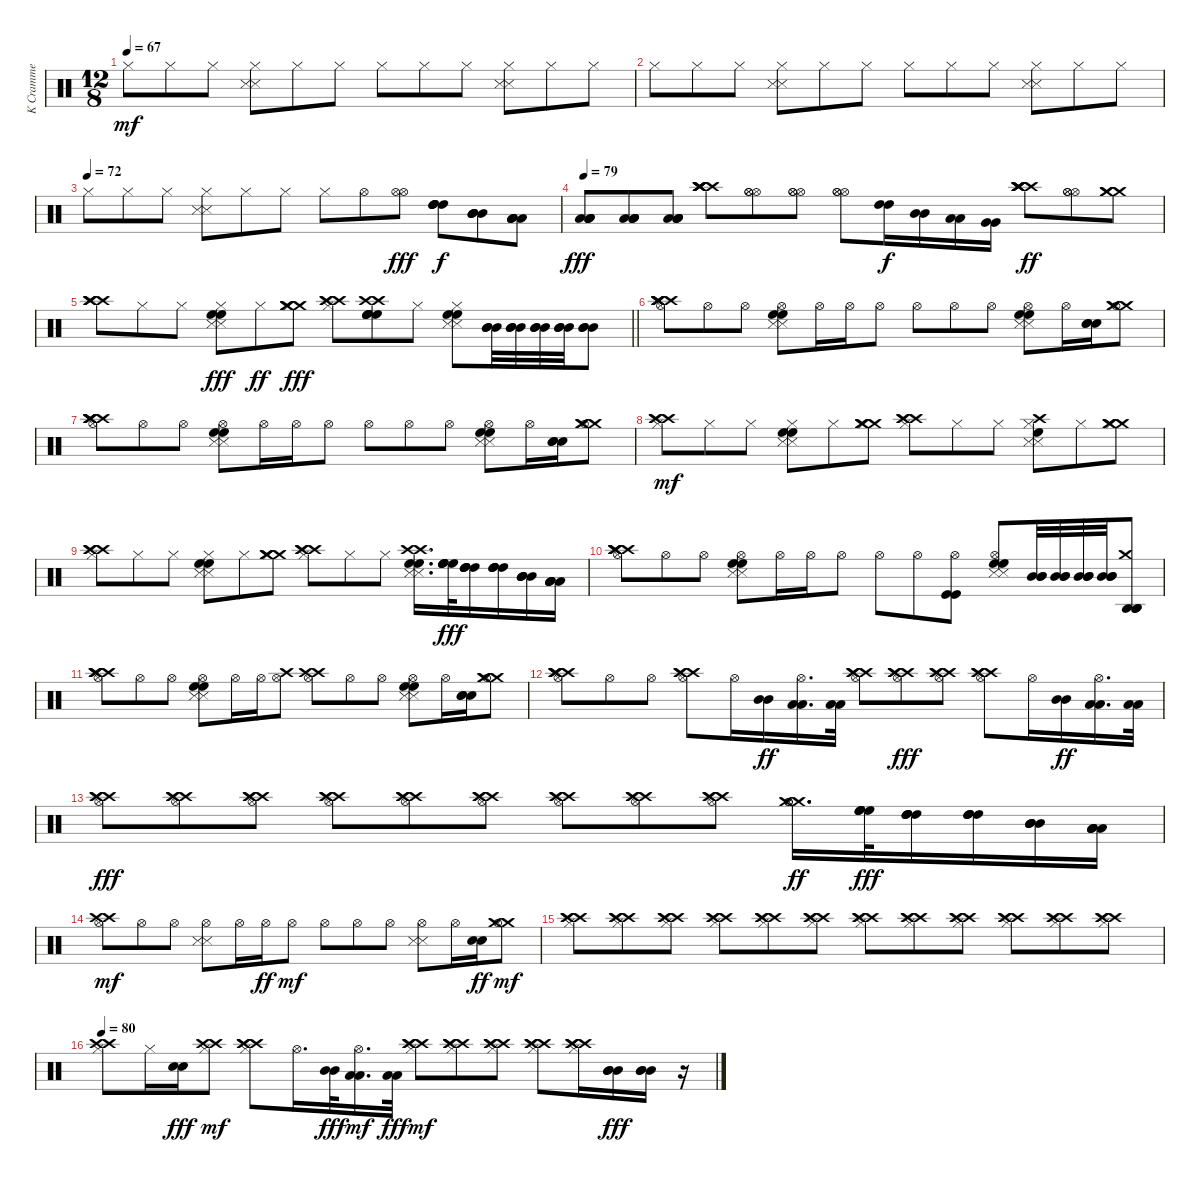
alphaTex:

\track ("K Cramme" "K Cramme") {instrument percussion}
\staff {score}
\articulation defaults
\ts (12 8)
\tempo 67
\clef neutral
\ks c "Hi-Hat (closed)".8{dy mf} "Hi-Hat (closed)".8 "Hi-Hat (closed)".8
("Snare (side stick) 3" "Snare (side stick) 3" "Hi-Hat (closed)").8 "Hi-Hat (closed)".8 "Hi-Hat (closed)".8 "Hi-Hat (closed)".8 "Hi-Hat (closed)".8 "Hi-Hat (closed)".8 ("Snare (side stick) 3" "Snare (side stick) 3" "Hi-Hat (closed)").8 "Hi-Hat (closed)".8 "Hi-Hat (closed)".8 |
"Hi-Hat (closed)".8 "Hi-Hat (closed)".8 "Hi-Hat (closed)".8 ("Snare (side stick) 3" "Snare (side stick) 3" "Hi-Hat (closed)").8 "Hi-Hat (closed)".8 "Hi-Hat (closed)".8 "Hi-Hat (closed)".8 "Hi-Hat (closed)".8 "Hi-Hat (closed)".8 ("Snare (side stick) 3" "Snare (side stick) 3" "Hi-Hat (closed)").8 "Hi-Hat (closed)".8 "Hi-Hat (closed)".8 |
\tempo (72)
"Hi-Hat (closed)".8 "Hi-Hat (closed)".8 "Hi-Hat (closed)".8 ("Snare (side stick) 3" "Snare (side stick) 3" "Hi-Hat (closed)").8 "Hi-Hat (closed)".8 "Hi-Hat (closed)".8 "Hi-Hat (closed)".8 "Hi-Hat (open)".8 ("Hi-Hat (open)" "Hi-Hat (open)").8{dy fff} ("High Tom (hit)" "High Tom (hit)" "High Tom (hit)" "High Tom (hit)").8{dy f} ("Mid Tom (hit)" "Mid Tom (hit)" "Mid Tom (hit)" "Mid Tom (hit)").8 ("Low Tom (hit)" "Low Tom (hit)" "Low Tom (hit)" "Low Tom (hit)").8 |
\tempo 79
("Low Floor Tom (hit)" "Low Floor Tom (hit)" "Low Floor Tom (hit)" "Low Floor Tom (hit)").8{dy fff volume 16} ("Low Floor Tom (hit)" "Low Floor Tom (hit)" "Low Floor Tom (hit)" "Low Floor Tom (hit)").8 ("Low Floor Tom (hit)" "Low Floor Tom (hit)" "Low Floor Tom (hit)" "Low Floor Tom (hit)").8 ("Crash high (hit)" "Crash high (hit)" "Crash high (hit)" "Crash high (hit)" "Crash high (hit)" "Crash high (hit)").8 ("Hi-Hat (open)" "Hi-Hat (open)" "Hi-Hat (open)").8 ("Hi-Hat (open)" "Hi-Hat (open)" "Hi-Hat (open)").8 ("Hi-Hat (open)" "Hi-Hat (open)" "Hi-Hat (open)").8 ("High Tom (hit)" "High Tom (hit)").16{dy f} ("Mid Tom (hit)" "Mid Tom (hit)").16 ("Low Tom (hit)" "Low Tom (hit)").16 ("Very Low Tom (hit)" "Very Low Tom (hit)").16 ("Crash high (hit)" "Crash high (hit)" "Crash high (hit)" "Crash high (hit)" "Crash high (hit)" "Crash high (hit)").8{dy ff} ("Hi-Hat (open)" "Hi-Hat (open)" "Hi-Hat (open)").8 ("Crash medium (hit)" "Crash medium (hit)" "Crash medium (hit)").8 |
\barLineRight lightlight
("Crash high (hit)" "Crash high (hit)" "Crash high (hit)" "Crash high (hit)").8 "Hi-Hat (closed)".8 "Hi-Hat (closed)".8 ("High Floor Tom (hit)" "High Floor Tom (hit)" "Snare (side stick) 3" "Snare (side stick) 3" "Hi-Hat (closed)").8{dy fff} "Hi-Hat (closed)".8{dy ff} ("Crash medium (hit)" "Crash medium (hit)" "Crash medium (hit)" "Hi-Hat (closed)").8{dy fff} ("Crash high (hit)" "Crash high (hit)" "Crash high (hit)" "Hi-Hat (closed)").8 ("High Floor Tom (hit)" "High Floor Tom (hit)" "Crash high (hit)" "Crash high (hit)" "High Floor Tom (hit)" "High Floor Tom (hit)").8 "Hi-Hat (closed)".8 ("High Floor Tom (hit)" "High Floor Tom (hit)" "Snare (side stick) 3" "Snare (side stick) 3" "Hi-Hat (closed)").8 ("Mid Tom (hit)" "Mid Tom (hit)" "Mid Tom (hit)").32 ("Mid Tom (hit)" "Mid Tom (hit)" "Mid Tom (hit)").32 ("Mid Tom (hit)" "Mid Tom (hit)" "Mid Tom (hit)").32 ("Mid Tom (hit)" "Mid Tom (hit)" "Mid Tom (hit)").32 ("Mid Tom (hit)" "Mid Tom (hit)" "Mid Tom (hit)").8 |
("Crash high (hit)" "Crash high (hit)" "Crash high (hit)" "Crash high (hit)" "Crash high (hit)" "Hi-Hat (open)").8 "Hi-Hat (open)".8 "Hi-Hat (open)".8 ("High Floor Tom (hit)" "High Floor Tom (hit)" "Snare (side stick) 3" "Snare (side stick) 3" "Hi-Hat (open)").8 "Hi-Hat (open)".16 "Hi-Hat (open)".16 "Hi-Hat (open)".8 "Hi-Hat (open)".8 "Hi-Hat (open)".8 "Hi-Hat (open)".8 ("High Floor Tom (hit)" "High Floor Tom (hit)" "Snare (side stick) 3" "Snare (side stick) 3" "Hi-Hat (open)").8 "Hi-Hat (open)".16 ("Snare (hit) 2" "Snare (hit) 2" "Snare (hit) 2").16 ("Crash medium (hit)" "Crash medium (hit)" "Crash medium (hit)" "Hi-Hat (open)").8 |
("Crash high (hit)" "Crash high (hit)" "Crash high (hit)" "Crash high (hit)" "Crash high (hit)" "Hi-Hat (open)").8 "Hi-Hat (open)".8 "Hi-Hat (open)".8 ("High Floor Tom (hit)" "High Floor Tom (hit)" "Snare (side stick) 3" "Snare (side stick) 3" "Hi-Hat (open)").8 "Hi-Hat (open)".16 "Hi-Hat (open)".16 "Hi-Hat (open)".8 "Hi-Hat (open)".8 "Hi-Hat (open)".8 "Hi-Hat (open)".8 ("High Floor Tom (hit)" "High Floor Tom (hit)" "Snare (side stick) 3" "Snare (side stick) 3" "Hi-Hat (open)").8 "Hi-Hat (open)".16 ("Snare (hit) 2" "Snare (hit) 2" "Snare (hit) 2").16 ("Crash medium (hit)" "Crash medium (hit)" "Crash medium (hit)" "Hi-Hat (open)").8 |
("Crash high (hit)" "Crash high (hit)" "Crash high (hit)" "Hi-Hat (closed)").8{dy mf} "Hi-Hat (closed)".8 "Hi-Hat (closed)".8 ("High Floor Tom (hit)" "High Floor Tom (hit)" "Snare (side stick) 3" "Snare (side stick) 3" "Hi-Hat (closed)").8 "Hi-Hat (closed)".8 ("Crash medium (hit)" "Crash medium (hit)" "Crash medium (hit)" "Hi-Hat (closed)").8 ("Crash high (hit)" "Crash high (hit)" "Crash high (hit)" "Hi-Hat (closed)").8 "Hi-Hat (closed)".8 "Hi-Hat (closed)".8 ("Snare (side stick) 3" "High Floor Tom (hit)" "Snare (side stick) 3" "Crash high (hit)" "Hi-Hat (closed)").8 "Hi-Hat (closed)".8 ("Crash medium (hit)" "Crash medium (hit)" "Crash medium (hit)" "Hi-Hat (closed)").8 |
("Crash high (hit)" "Crash high (hit)" "Crash high (hit)" "Hi-Hat (closed)").8 "Hi-Hat (closed)".8 "Hi-Hat (closed)".8 ("High Floor Tom (hit)" "High Floor Tom (hit)" "Snare (side stick) 3" "Snare (side stick) 3" "Hi-Hat (closed)").8 "Hi-Hat (closed)".8 ("Crash medium (hit)" "Crash medium (hit)" "Crash medium (hit)" "Hi-Hat (closed)").8 ("Crash high (hit)" "Crash high (hit)" "Crash high (hit)" "Hi-Hat (closed)").8 "Hi-Hat (closed)".8 "Hi-Hat (closed)".8 ("High Floor Tom (hit)" "High Floor Tom (hit)" "Snare (side stick) 3" "Snare (side stick) 3" "Crash high (hit)" "Crash high (hit)").16{d} ("High Floor Tom (hit)" "High Floor Tom (hit)" "High Floor Tom (hit)" "High Floor Tom (hit)").32{dy fff} ("High Tom (hit)" "High Tom (hit)" "High Tom (hit)" "High Tom (hit)").16 ("High Tom (hit)" "High Tom (hit)" "High Tom (hit)" "High Tom (hit)").16 ("Mid Tom (hit)" "Mid Tom (hit)" "Mid Tom (hit)" "Mid Tom (hit)").16 ("Low Tom (hit)" "Low Tom (hit)" "Low Tom (hit)" "Low Tom (hit)").16 |
("Crash high (hit)" "Crash high (hit)" "Crash high (hit)" "Crash high (hit)" "Crash high (hit)" "Hi-Hat (open)").8 "Hi-Hat (open)".8 "Hi-Hat (open)".8 ("High Floor Tom (hit)" "High Floor Tom (hit)" "Snare (side stick) 3" "Snare (side stick) 3" "Hi-Hat (open)").8 "Hi-Hat (open)".16 "Hi-Hat (open)".16 "Hi-Hat (open)".8 "Hi-Hat (open)".8 "Hi-Hat (open)".8 ("Kick (hit)" "Kick (hit)" "Hi-Hat (open)").8 ("High Floor Tom (hit)" "High Floor Tom (hit)" "Snare (side stick) 3" "Snare (side stick) 3" "Hi-Hat (open)").8 ("Mid Tom (hit)" "Mid Tom (hit)" "Mid Tom (hit)").32 ("Mid Tom (hit)" "Mid Tom (hit)" "Mid Tom (hit)").32 ("Mid Tom (hit)" "Mid Tom (hit)" "Mid Tom (hit)").32 ("Mid Tom (hit)" "Mid Tom (hit)" "Mid Tom (hit)").32 ("Crash medium (hit)" "Agogo high (hit)" "Agogo high (hit)" "Agogo high (hit)").8 |
("Crash high (hit)" "Crash high (hit)" "Crash high (hit)" "Crash high (hit)" "Crash high (hit)" "Hi-Hat (open)").8 "Hi-Hat (open)".8 "Hi-Hat (open)".8 ("High Floor Tom (hit)" "High Floor Tom (hit)" "Snare (side stick) 3" "Snare (side stick) 3" "Hi-Hat (open)").8 "Hi-Hat (open)".16 "Hi-Hat (open)".16 ("Crash high (hit)" "Hi-Hat (open)").8 ("Crash high (hit)" "Crash high (hit)" "Hi-Hat (open)").8 "Hi-Hat (open)".8 "Hi-Hat (open)".8 ("High Floor Tom (hit)" "High Floor Tom (hit)" "Snare (side stick) 3" "Snare (side stick) 3" "Hi-Hat (open)").8 "Hi-Hat (open)".16 ("Snare (hit) 2" "Snare (hit) 2" "Snare (hit) 2").16 ("Crash medium (hit)" "Crash medium (hit)" "Crash medium (hit)" "Hi-Hat (open)").8 |
("Crash high (hit)" "Crash high (hit)" "Crash high (hit)" "Crash high (hit)" "Crash high (hit)" "Hi-Hat (open)").8 "Hi-Hat (open)".8 "Hi-Hat (open)".8 ("Crash high (hit)" "Crash high (hit)" "Crash high (hit)" "Hi-Hat (open)").8 "Hi-Hat (open)".16 ("Mid Tom (hit)" "Mid Tom (hit)").16{dy ff} ("Low Tom (hit)" "Low Tom (hit)" "Hi-Hat (open)").16{d} ("Low Tom (hit)" "Low Tom (hit)").32 ("Crash high (hit)" "Crash high (hit)" "Crash high (hit)" "Hi-Hat (open)").8 ("Crash high (hit)" "Crash high (hit)" "Crash high (hit)" "Hi-Hat (open)").8{dy fff} ("Crash high (hit)" "Crash high (hit)" "Crash high (hit)" "Hi-Hat (open)").8 ("Crash high (hit)" "Crash high (hit)" "Crash high (hit)" "Hi-Hat (open)").8 "Hi-Hat (open)".16 ("Mid Tom (hit)" "Mid Tom (hit)").16{dy ff} ("Low Tom (hit)" "Low Tom (hit)" "Hi-Hat (open)").16{d} ("Low Tom (hit)" "Low Tom (hit)").32 |
("Crash high (hit)" "Crash high (hit)" "Crash high (hit)" "Hi-Hat (open)").8{dy fff} ("Crash high (hit)" "Crash high (hit)" "Crash high (hit)" "Hi-Hat (open)").8 ("Crash high (hit)" "Crash high (hit)" "Crash high (hit)" "Hi-Hat (open)").8 ("Crash high (hit)" "Crash high (hit)" "Crash high (hit)" "Hi-Hat (open)").8 ("Crash high (hit)" "Crash high (hit)" "Crash high (hit)" "Hi-Hat (open)").8 ("Crash high (hit)" "Crash high (hit)" "Crash high (hit)" "Hi-Hat (open)").8 ("Crash high (hit)" "Crash high (hit)" "Crash high (hit)" "Hi-Hat (open)").8 ("Crash high (hit)" "Crash high (hit)" "Crash high (hit)" "Hi-Hat (open)").8 ("Crash high (hit)" "Crash high (hit)" "Crash high (hit)" "Hi-Hat (open)").8 ("Crash medium (hit)" "Crash medium (hit)" "Hi-Hat (open)" "Hi-Hat (open)").16{d dy ff} ("High Floor Tom (hit)" "High Floor Tom (hit)" "High Floor Tom (hit)" "High Floor Tom (hit)").32{dy fff} ("High Tom (hit)" "High Tom (hit)" "High Tom (hit)" "High Tom (hit)").16 ("High Tom (hit)" "High Tom (hit)" "High Tom (hit)" "High Tom (hit)").16 ("Mid Tom (hit)" "Mid Tom (hit)" "Mid Tom (hit)" "Mid Tom (hit)").16 ("Low Tom (hit)" "Low Tom (hit)" "Low Tom (hit)" "Low Tom (hit)").16 |
("Crash high (hit)" "Crash high (hit)" "Hi-Hat (open)").8{dy mf} "Hi-Hat (open)".8 "Hi-Hat (open)".8 ("Snare (side stick) 3" "Snare (side stick) 3" "Hi-Hat (open)").8 "Hi-Hat (open)".16 "Hi-Hat (open)".16{dy ff} "Hi-Hat (open)".8{dy mf} "Hi-Hat (open)".8 "Hi-Hat (open)".8 "Hi-Hat (open)".8 ("Snare (side stick) 3" "Snare (side stick) 3" "Hi-Hat (open)").8 "Hi-Hat (open)".16 ("Snare (hit) 2" "Snare (hit) 2").16{dy ff} ("Crash medium (hit)" "Crash medium (hit)" "Hi-Hat (open)").8{dy mf} |
("Crash high (hit)" "Crash high (hit)" "Crash high (hit)" "Hi-Hat (closed)").8 ("Crash high (hit)" "Crash high (hit)" "Crash high (hit)" "Hi-Hat (closed)").8 ("Crash high (hit)" "Crash high (hit)" "Crash high (hit)" "Hi-Hat (closed)").8 ("Crash high (hit)" "Crash high (hit)" "Crash high (hit)" "Hi-Hat (closed)").8 ("Crash high (hit)" "Crash high (hit)" "Crash high (hit)" "Hi-Hat (closed)").8 ("Crash high (hit)" "Crash high (hit)" "Crash high (hit)" "Hi-Hat (closed)").8 ("Crash high (hit)" "Crash high (hit)" "Crash high (hit)" "Hi-Hat (closed)").8 ("Crash high (hit)" "Crash high (hit)" "Crash high (hit)" "Hi-Hat (closed)").8 ("Crash high (hit)" "Crash high (hit)" "Crash high (hit)" "Hi-Hat (closed)").8 ("Crash high (hit)" "Crash high (hit)" "Crash high (hit)" "Hi-Hat (closed)").8 ("Crash high (hit)" "Crash high (hit)" "Crash high (hit)" "Hi-Hat (closed)").8 ("Crash high (hit)" "Crash high (hit)" "Crash high (hit)" "Hi-Hat (closed)").8 |
\tempo 80
("Crash high (hit)" "Crash high (hit)" "Hi-Hat (closed)").8 "Hi-Hat (closed)".16 ("Snare (hit) 2" "Snare (hit) 2").16{dy fff} ("Crash high (hit)" "Crash high (hit)" "Hi-Hat (closed)").8{dy mf} ("Crash high (hit)" "Crash high (hit)" "Crash high (hit)" "Hi-Hat (closed)").8 "Hi-Hat (open)".16{d} ("Mid Tom (hit)" "Mid Tom (hit)").32{dy fff} ("Low Tom (hit)" "Low Tom (hit)" "Hi-Hat (open)").16{d dy mf} ("Low Tom (hit)" "Low Tom (hit)").32{dy fff} ("Crash high (hit)" "Crash high (hit)" "Crash high (hit)" "Hi-Hat (closed)").8{dy mf} ("Crash high (hit)" "Crash high (hit)" "Crash high (hit)" "Hi-Hat (closed)").8 ("Crash high (hit)" "Crash high (hit)" "Crash high (hit)" "Hi-Hat (closed)").8 ("Crash high (hit)" "Crash high (hit)" "Crash high (hit)" "Hi-Hat (closed)").8 ("Crash high (hit)" "Crash high (hit)" "Crash high (hit)" "Hi-Hat (closed)").16 ("Mid Tom (hit)" "Mid Tom (hit)" "Mid Tom (hit)").16{dy fff} ("Mid Tom (hit)" "Mid Tom (hit)" "Mid Tom (hit)").16 r.16
